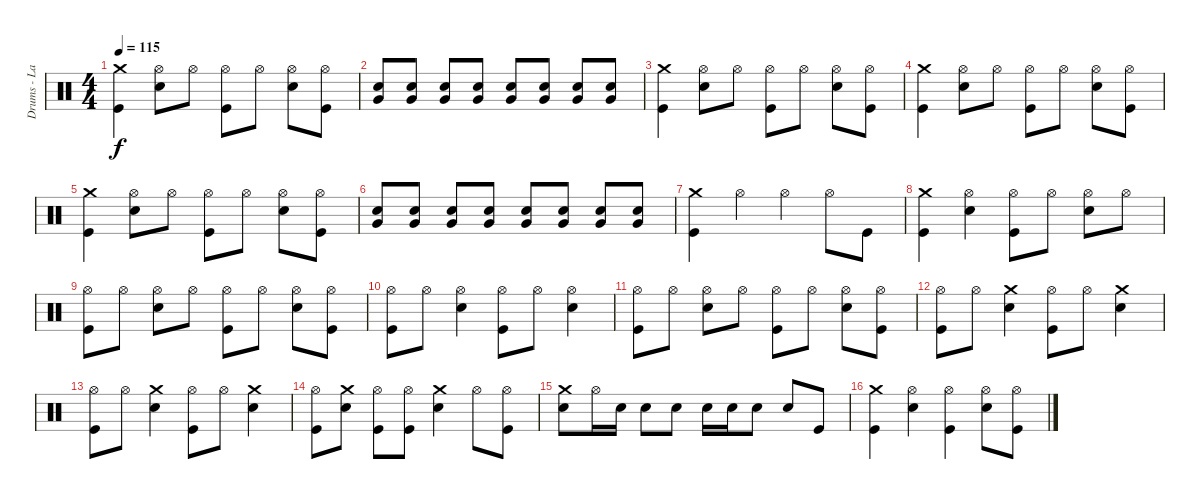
\track ("Drums - Lars Ulrich" "Drums - La") {instrument percussion}
\staff {score}
\articulation defaults
\ts (4 4)
\tempo 115
\clef neutral
\ks c
("Kick (hit)" "Crash medium (hit)").4{dy f} ("Electric Snare (hit)" "Hi-Hat (open)").8 "Hi-Hat (open)".8 ("Kick (hit)" "Hi-Hat (open)").8 "Hi-Hat (open)".8 ("Electric Snare (hit)" "Hi-Hat (open)").8 ("Kick (hit)" "Hi-Hat (open)").8 |
("Electric Snare (hit)" "Very Low Tom (hit)").8 ("Electric Snare (hit)" "Very Low Tom (hit)").8 ("Electric Snare (hit)" "Very Low Tom (hit)").8 ("Electric Snare (hit)" "Very Low Tom (hit)").8 ("Electric Snare (hit)" "Very Low Tom (hit)").8 ("Electric Snare (hit)" "Very Low Tom (hit)").8 ("Electric Snare (hit)" "Very Low Tom (hit)").8 ("Electric Snare (hit)" "Very Low Tom (hit)").8 |
("Kick (hit)" "Crash medium (hit)").4 ("Electric Snare (hit)" "Hi-Hat (open)").8 "Hi-Hat (open)".8 ("Kick (hit)" "Hi-Hat (open)").8 "Hi-Hat (open)".8 ("Electric Snare (hit)" "Hi-Hat (open)").8 ("Kick (hit)" "Hi-Hat (open)").8 |
("Kick (hit)" "Crash medium (hit)").4 ("Electric Snare (hit)" "Hi-Hat (open)").8 "Hi-Hat (open)".8 ("Kick (hit)" "Hi-Hat (open)").8 "Hi-Hat (open)".8 ("Electric Snare (hit)" "Hi-Hat (open)").8 ("Kick (hit)" "Hi-Hat (open)").8 |
("Kick (hit)" "Crash medium (hit)").4 ("Electric Snare (hit)" "Hi-Hat (open)").8 "Hi-Hat (open)".8 ("Kick (hit)" "Hi-Hat (open)").8 "Hi-Hat (open)".8 ("Electric Snare (hit)" "Hi-Hat (open)").8 ("Kick (hit)" "Hi-Hat (open)").8 |
("Electric Snare (hit)" "Very Low Tom (hit)").8 ("Electric Snare (hit)" "Very Low Tom (hit)").8 ("Electric Snare (hit)" "Very Low Tom (hit)").8 ("Electric Snare (hit)" "Very Low Tom (hit)").8 ("Electric Snare (hit)" "Very Low Tom (hit)").8 ("Electric Snare (hit)" "Very Low Tom (hit)").8 ("Electric Snare (hit)" "Very Low Tom (hit)").8 ("Electric Snare (hit)" "Very Low Tom (hit)").8 |
("Kick (hit)" "Crash medium (hit)").4 "Hi-Hat (open)".4 "Hi-Hat (open)".4 "Hi-Hat (open)".8 "Kick (hit)".8 |
("Kick (hit)" "Crash medium (hit)").4 ("Electric Snare (hit)" "Hi-Hat (open)").4 ("Kick (hit)" "Hi-Hat (open)").8 "Hi-Hat (open)".8 ("Electric Snare (hit)" "Hi-Hat (open)").8 "Hi-Hat (open)".8 |
("Kick (hit)" "Hi-Hat (open)").8 "Hi-Hat (open)".8 ("Electric Snare (hit)" "Hi-Hat (open)").8 "Hi-Hat (open)".8 ("Kick (hit)" "Hi-Hat (open)").8 "Hi-Hat (open)".8 ("Electric Snare (hit)" "Hi-Hat (open)").8 ("Kick (hit)" "Hi-Hat (open)").8 |
("Kick (hit)" "Hi-Hat (open)").8 "Hi-Hat (open)".8 ("Electric Snare (hit)" "Hi-Hat (open)").4 ("Kick (hit)" "Hi-Hat (open)").8 "Hi-Hat (open)".8 ("Electric Snare (hit)" "Hi-Hat (open)").4 |
("Kick (hit)" "Hi-Hat (open)").8 "Hi-Hat (open)".8 ("Electric Snare (hit)" "Hi-Hat (open)").8 "Hi-Hat (open)".8 ("Kick (hit)" "Hi-Hat (open)").8 "Hi-Hat (open)".8 ("Electric Snare (hit)" "Hi-Hat (open)").8 ("Kick (hit)" "Hi-Hat (open)").8 |
("Kick (hit)" "Hi-Hat (open)").8 "Hi-Hat (open)".8 ("Electric Snare (hit)" "Crash medium (hit)").4 ("Kick (hit)" "Hi-Hat (open)").8 "Hi-Hat (open)".8 ("Electric Snare (hit)" "Crash medium (hit)").4 |
("Kick (hit)" "Hi-Hat (open)").8 "Hi-Hat (open)".8 ("Electric Snare (hit)" "Crash medium (hit)").4 ("Kick (hit)" "Hi-Hat (open)").8 "Hi-Hat (open)".8 ("Electric Snare (hit)" "Crash medium (hit)").4 |
("Kick (hit)" "Hi-Hat (open)").8 ("Electric Snare (hit)" "Crash medium (hit)").8 ("Kick (hit)" "Hi-Hat (open)").8 ("Kick (hit)" "Hi-Hat (open)").8 ("Electric Snare (hit)" "Crash medium (hit)").4 "Hi-Hat (open)".8 ("Kick (hit)" "Hi-Hat (open)").8 |
("Electric Snare (hit)" "Crash medium (hit)").8 "Hi-Hat (open)".16 "Electric Snare (hit)".16 "Electric Snare (hit)".8 "Electric Snare (hit)".8 "Electric Snare (hit)".16 "Electric Snare (hit)".16 "Electric Snare (hit)".8 "Electric Snare (hit)".8 "Kick (hit)".8 |
("Kick (hit)" "Crash medium (hit)").4 ("Electric Snare (hit)" "Hi-Hat (open)").4 ("Kick (hit)" "Hi-Hat (open)").4 ("Electric Snare (hit)" "Hi-Hat (open)").8 ("Kick (hit)" "Hi-Hat (open)").8
